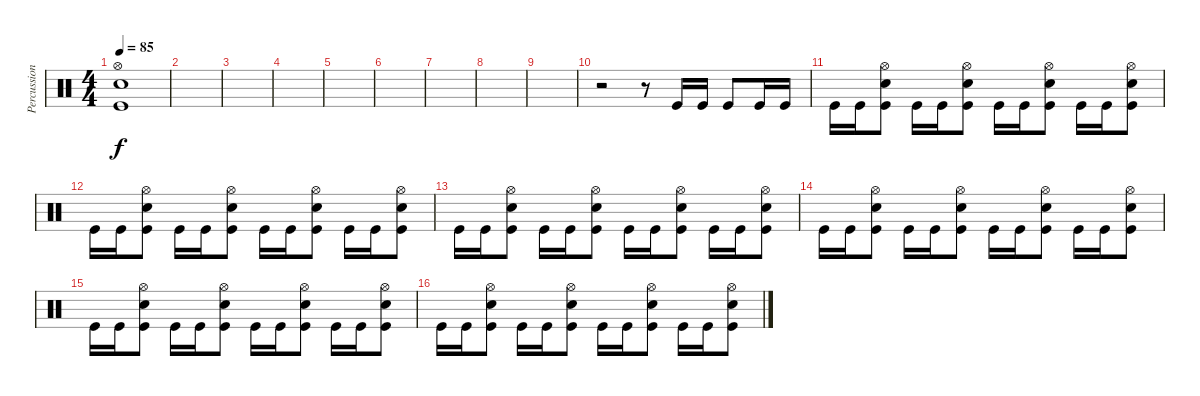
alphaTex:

\track ("Percussioni" "Percussion") {instrument percussion}
\staff {score}
\articulation defaults
\ts (4 4)
\tempo 85
\clef neutral
\ks c
("Hi-Hat (open)" "Snare (hit) 2" "Kick (hit)").1{dy f} |
|
|
|
|
|
|
|
|
r.2 r.8 "Kick (hit)".16 "Kick (hit)".16 "Kick (hit)".8 "Kick (hit)".16 "Kick (hit)".16 |
"Kick (hit)".16 "Kick (hit)".16 ("Hi-Hat (open)" "Snare (hit) 2" "Kick (hit)").8 "Kick (hit)".16 "Kick (hit)".16 ("Hi-Hat (open)" "Snare (hit) 2" "Kick (hit)").8 "Kick (hit)".16 "Kick (hit)".16 ("Hi-Hat (open)" "Snare (hit) 2" "Kick (hit)").8 "Kick (hit)".16 "Kick (hit)".16 ("Hi-Hat (open)" "Snare (hit) 2" "Kick (hit)").8 |
"Kick (hit)".16 "Kick (hit)".16 ("Hi-Hat (open)" "Snare (hit) 2" "Kick (hit)").8 "Kick (hit)".16 "Kick (hit)".16 ("Hi-Hat (open)" "Snare (hit) 2" "Kick (hit)").8 "Kick (hit)".16 "Kick (hit)".16 ("Hi-Hat (open)" "Snare (hit) 2" "Kick (hit)").8 "Kick (hit)".16 "Kick (hit)".16 ("Hi-Hat (open)" "Snare (hit) 2" "Kick (hit)").8 |
"Kick (hit)".16 "Kick (hit)".16 ("Hi-Hat (open)" "Snare (hit) 2" "Kick (hit)").8 "Kick (hit)".16 "Kick (hit)".16 ("Hi-Hat (open)" "Snare (hit) 2" "Kick (hit)").8 "Kick (hit)".16 "Kick (hit)".16 ("Hi-Hat (open)" "Snare (hit) 2" "Kick (hit)").8 "Kick (hit)".16 "Kick (hit)".16 ("Hi-Hat (open)" "Snare (hit) 2" "Kick (hit)").8 |
"Kick (hit)".16 "Kick (hit)".16 ("Hi-Hat (open)" "Snare (hit) 2" "Kick (hit)").8 "Kick (hit)".16 "Kick (hit)".16 ("Hi-Hat (open)" "Snare (hit) 2" "Kick (hit)").8 "Kick (hit)".16 "Kick (hit)".16 ("Hi-Hat (open)" "Snare (hit) 2" "Kick (hit)").8 "Kick (hit)".16 "Kick (hit)".16 ("Hi-Hat (open)" "Snare (hit) 2" "Kick (hit)").8 |
"Kick (hit)".16 "Kick (hit)".16 ("Hi-Hat (open)" "Snare (hit) 2" "Kick (hit)").8 "Kick (hit)".16 "Kick (hit)".16 ("Hi-Hat (open)" "Snare (hit) 2" "Kick (hit)").8 "Kick (hit)".16 "Kick (hit)".16 ("Hi-Hat (open)" "Snare (hit) 2" "Kick (hit)").8 "Kick (hit)".16 "Kick (hit)".16 ("Hi-Hat (open)" "Snare (hit) 2" "Kick (hit)").8 |
"Kick (hit)".16 "Kick (hit)".16 ("Hi-Hat (open)" "Snare (hit) 2" "Kick (hit)").8 "Kick (hit)".16 "Kick (hit)".16 ("Hi-Hat (open)" "Snare (hit) 2" "Kick (hit)").8 "Kick (hit)".16 "Kick (hit)".16 ("Hi-Hat (open)" "Snare (hit) 2" "Kick (hit)").8 "Kick (hit)".16 "Kick (hit)".16 ("Hi-Hat (open)" "Snare (hit) 2" "Kick (hit)").8
